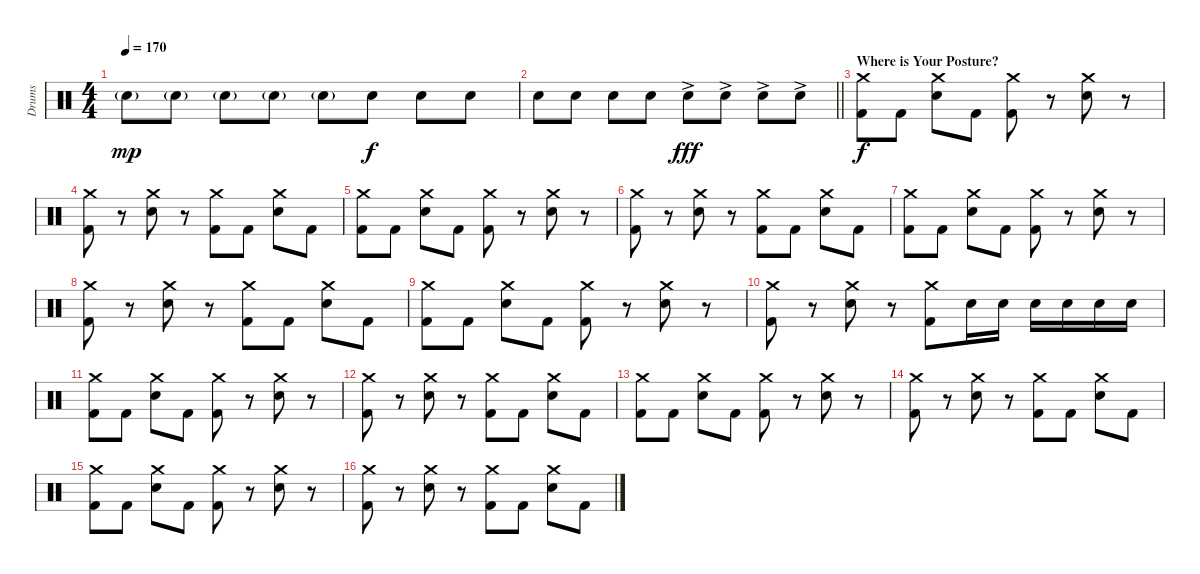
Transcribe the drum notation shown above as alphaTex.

\track ("Drums" "Drums") {instrument percussion}
\staff {score}
\articulation defaults
\ts (4 4)
\tempo 170
\clef neutral
\ks c "Electric Snare (hit)"{g}.8{dy mp} "Electric Snare (hit)"{g}.8 "Electric Snare (hit)"{g}.8 "Electric Snare (hit)"{g}.8 "Electric Snare (hit)"{g}.8 "Electric Snare (hit)".8{dy f} "Electric Snare (hit)".8 "Electric Snare (hit)".8
|
\barLineRight lightlight "Electric Snare (hit)".8 "Electric Snare (hit)".8 "Electric Snare (hit)".8 "Electric Snare (hit)".8 "Electric Snare (hit)"{ac}.8{dy fff} "Electric Snare (hit)"{ac}.8 "Electric Snare (hit)"{ac}.8 "Electric Snare (hit)"{ac}.8
|
\section ("" "Where is Your Posture?")
("Crash medium (hit)" "Kick (hit) 2").8{dy f} "Kick (hit) 2".8 ("Crash medium (hit)" "Electric Snare (hit)").8 "Kick (hit) 2".8 ("Crash medium (hit)" "Kick (hit) 2").8 r.8 ("Crash medium (hit)" "Electric Snare (hit)").8 r.8 |
("Crash medium (hit)" "Kick (hit) 2").8 r.8 ("Crash medium (hit)" "Electric Snare (hit)").8 r.8 ("Crash medium (hit)" "Kick (hit) 2").8 "Kick (hit) 2".8 ("Crash medium (hit)" "Electric Snare (hit)").8 "Kick (hit) 2".8 |
("Crash medium (hit)" "Kick (hit) 2").8 "Kick (hit) 2".8 ("Crash medium (hit)" "Electric Snare (hit)").8 "Kick (hit) 2".8 ("Crash medium (hit)" "Kick (hit) 2").8 r.8 ("Crash medium (hit)" "Electric Snare (hit)").8 r.8 |
("Crash medium (hit)" "Kick (hit) 2").8 r.8 ("Crash medium (hit)" "Electric Snare (hit)").8 r.8 ("Crash medium (hit)" "Kick (hit) 2").8 "Kick (hit) 2".8 ("Crash medium (hit)" "Electric Snare (hit)").8 "Kick (hit) 2".8 |
("Crash medium (hit)" "Kick (hit) 2").8 "Kick (hit) 2".8 ("Crash medium (hit)" "Electric Snare (hit)").8 "Kick (hit) 2".8 ("Crash medium (hit)" "Kick (hit) 2").8 r.8 ("Crash medium (hit)" "Electric Snare (hit)").8 r.8 |
("Crash medium (hit)" "Kick (hit) 2").8 r.8 ("Crash medium (hit)" "Electric Snare (hit)").8 r.8 ("Crash medium (hit)" "Kick (hit) 2").8 "Kick (hit) 2".8 ("Crash medium (hit)" "Electric Snare (hit)").8 "Kick (hit) 2".8 |
("Crash medium (hit)" "Kick (hit) 2").8 "Kick (hit) 2".8 ("Crash medium (hit)" "Electric Snare (hit)").8 "Kick (hit) 2".8 ("Crash medium (hit)" "Kick (hit) 2").8 r.8 ("Crash medium (hit)" "Electric Snare (hit)").8 r.8 |
("Crash medium (hit)" "Kick (hit) 2").8 r.8 ("Crash medium (hit)" "Electric Snare (hit)").8 r.8 ("Crash medium (hit)" "Kick (hit) 2").8 "Electric Snare (hit)".16 "Electric Snare (hit)".16 "Electric Snare (hit)".16 "Electric Snare (hit)".16 "Electric Snare (hit)".16 "Electric Snare (hit)".16 |
("Crash medium (hit)" "Kick (hit) 2").8 "Kick (hit) 2".8 ("Crash medium (hit)" "Electric Snare (hit)").8 "Kick (hit) 2".8 ("Crash medium (hit)" "Kick (hit) 2").8 r.8 ("Crash medium (hit)" "Electric Snare (hit)").8 r.8 |
("Crash medium (hit)" "Kick (hit) 2").8 r.8 ("Crash medium (hit)" "Electric Snare (hit)").8 r.8 ("Crash medium (hit)" "Kick (hit) 2").8 "Kick (hit) 2".8 ("Crash medium (hit)" "Electric Snare (hit)").8 "Kick (hit) 2".8 |
("Crash medium (hit)" "Kick (hit) 2").8 "Kick (hit) 2".8 ("Crash medium (hit)" "Electric Snare (hit)").8 "Kick (hit) 2".8 ("Crash medium (hit)" "Kick (hit) 2").8 r.8 ("Crash medium (hit)" "Electric Snare (hit)").8 r.8 |
("Crash medium (hit)" "Kick (hit) 2").8 r.8 ("Crash medium (hit)" "Electric Snare (hit)").8 r.8 ("Crash medium (hit)" "Kick (hit) 2").8 "Kick (hit) 2".8 ("Crash medium (hit)" "Electric Snare (hit)").8 "Kick (hit) 2".8 |
("Crash medium (hit)" "Kick (hit) 2").8 "Kick (hit) 2".8 ("Crash medium (hit)" "Electric Snare (hit)").8 "Kick (hit) 2".8 ("Crash medium (hit)" "Kick (hit) 2").8 r.8 ("Crash medium (hit)" "Electric Snare (hit)").8 r.8 |
("Crash medium (hit)" "Kick (hit) 2").8 r.8 ("Crash medium (hit)" "Electric Snare (hit)").8 r.8 ("Crash medium (hit)" "Kick (hit) 2").8 "Kick (hit) 2".8 ("Crash medium (hit)" "Electric Snare (hit)").8 "Kick (hit) 2".8
